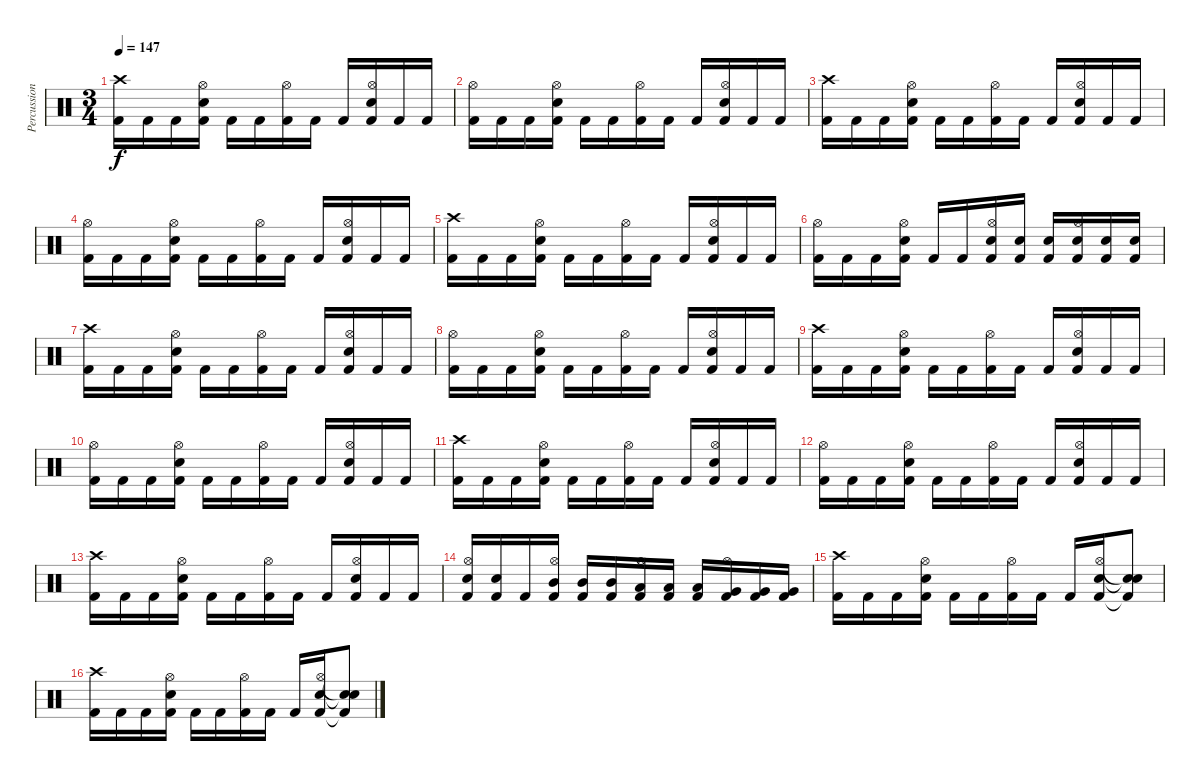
\track ("Percussion" "Percussion") {instrument percussion}
\staff {score}
\articulation defaults
\ts (3 4)
\tempo 147
\clef neutral
\ks c
("Crash high (hit)" "Kick (hit) 2").16{dy f} "Kick (hit) 2".16 "Kick (hit) 2".16 ("Hi-Hat (open)" "Electric Snare (hit)" "Kick (hit) 2").16 "Kick (hit) 2".16 "Kick (hit) 2".16 ("Hi-Hat (open)" "Kick (hit) 2").16 "Kick (hit) 2".16 "Kick (hit) 2".16 ("Hi-Hat (open)" "Electric Snare (hit)" "Kick (hit) 2").16 "Kick (hit) 2".16 "Kick (hit) 2".16 |
("Hi-Hat (open)" "Kick (hit) 2").16 "Kick (hit) 2".16 "Kick (hit) 2".16 ("Hi-Hat (open)" "Electric Snare (hit)" "Kick (hit) 2").16 "Kick (hit) 2".16 "Kick (hit) 2".16 ("Hi-Hat (open)" "Kick (hit) 2").16 "Kick (hit) 2".16 "Kick (hit) 2".16 ("Hi-Hat (open)" "Electric Snare (hit)" "Kick (hit) 2").16 "Kick (hit) 2".16 "Kick (hit) 2".16 |
("Crash high (hit)" "Kick (hit) 2").16 "Kick (hit) 2".16 "Kick (hit) 2".16 ("Hi-Hat (open)" "Electric Snare (hit)" "Kick (hit) 2").16 "Kick (hit) 2".16 "Kick (hit) 2".16 ("Hi-Hat (open)" "Kick (hit) 2").16 "Kick (hit) 2".16 "Kick (hit) 2".16 ("Hi-Hat (open)" "Electric Snare (hit)" "Kick (hit) 2").16 "Kick (hit) 2".16 "Kick (hit) 2".16 |
("Hi-Hat (open)" "Kick (hit) 2").16 "Kick (hit) 2".16 "Kick (hit) 2".16 ("Hi-Hat (open)" "Electric Snare (hit)" "Kick (hit) 2").16 "Kick (hit) 2".16 "Kick (hit) 2".16 ("Hi-Hat (open)" "Kick (hit) 2").16 "Kick (hit) 2".16 "Kick (hit) 2".16 ("Hi-Hat (open)" "Electric Snare (hit)" "Kick (hit) 2").16 "Kick (hit) 2".16 "Kick (hit) 2".16 |
("Crash high (hit)" "Kick (hit) 2").16 "Kick (hit) 2".16 "Kick (hit) 2".16 ("Hi-Hat (open)" "Electric Snare (hit)" "Kick (hit) 2").16 "Kick (hit) 2".16 "Kick (hit) 2".16 ("Hi-Hat (open)" "Kick (hit) 2").16 "Kick (hit) 2".16 "Kick (hit) 2".16 ("Hi-Hat (open)" "Electric Snare (hit)" "Kick (hit) 2").16 "Kick (hit) 2".16 "Kick (hit) 2".16 |
("Hi-Hat (open)" "Kick (hit) 2").16 "Kick (hit) 2".16 "Kick (hit) 2".16 ("Hi-Hat (open)" "Electric Snare (hit)" "Kick (hit) 2").16 "Kick (hit) 2".16 "Kick (hit) 2".16 ("Hi-Hat (open)" "Electric Snare (hit)" "Kick (hit) 2").16 ("Electric Snare (hit)" "Kick (hit) 2").16 ("Electric Snare (hit)" "Kick (hit) 2").16 ("Hi-Hat (open)" "Electric Snare (hit)" "Kick (hit) 2").16 ("Electric Snare (hit)" "Kick (hit) 2").16 ("Electric Snare (hit)" "Kick (hit) 2").16 |
("Crash high (hit)" "Kick (hit) 2").16 "Kick (hit) 2".16 "Kick (hit) 2".16 ("Hi-Hat (open)" "Electric Snare (hit)" "Kick (hit) 2").16 "Kick (hit) 2".16 "Kick (hit) 2".16 ("Hi-Hat (open)" "Kick (hit) 2").16 "Kick (hit) 2".16 "Kick (hit) 2".16 ("Hi-Hat (open)" "Electric Snare (hit)" "Kick (hit) 2").16 "Kick (hit) 2".16 "Kick (hit) 2".16 |
("Hi-Hat (open)" "Kick (hit) 2").16 "Kick (hit) 2".16 "Kick (hit) 2".16 ("Hi-Hat (open)" "Electric Snare (hit)" "Kick (hit) 2").16 "Kick (hit) 2".16 "Kick (hit) 2".16 ("Hi-Hat (open)" "Kick (hit) 2").16 "Kick (hit) 2".16 "Kick (hit) 2".16 ("Hi-Hat (open)" "Electric Snare (hit)" "Kick (hit) 2").16 "Kick (hit) 2".16 "Kick (hit) 2".16 |
("Crash high (hit)" "Kick (hit) 2").16 "Kick (hit) 2".16 "Kick (hit) 2".16 ("Hi-Hat (open)" "Electric Snare (hit)" "Kick (hit) 2").16 "Kick (hit) 2".16 "Kick (hit) 2".16 ("Hi-Hat (open)" "Kick (hit) 2").16 "Kick (hit) 2".16 "Kick (hit) 2".16 ("Hi-Hat (open)" "Electric Snare (hit)" "Kick (hit) 2").16 "Kick (hit) 2".16 "Kick (hit) 2".16 |
("Hi-Hat (open)" "Kick (hit) 2").16 "Kick (hit) 2".16 "Kick (hit) 2".16 ("Hi-Hat (open)" "Electric Snare (hit)" "Kick (hit) 2").16 "Kick (hit) 2".16 "Kick (hit) 2".16 ("Hi-Hat (open)" "Kick (hit) 2").16 "Kick (hit) 2".16 "Kick (hit) 2".16 ("Hi-Hat (open)" "Electric Snare (hit)" "Kick (hit) 2").16 "Kick (hit) 2".16 "Kick (hit) 2".16 |
("Crash high (hit)" "Kick (hit) 2").16 "Kick (hit) 2".16 "Kick (hit) 2".16 ("Hi-Hat (open)" "Electric Snare (hit)" "Kick (hit) 2").16 "Kick (hit) 2".16 "Kick (hit) 2".16 ("Hi-Hat (open)" "Kick (hit) 2").16 "Kick (hit) 2".16 "Kick (hit) 2".16 ("Hi-Hat (open)" "Electric Snare (hit)" "Kick (hit) 2").16 "Kick (hit) 2".16 "Kick (hit) 2".16 |
("Hi-Hat (open)" "Kick (hit) 2").16 "Kick (hit) 2".16 "Kick (hit) 2".16 ("Hi-Hat (open)" "Electric Snare (hit)" "Kick (hit) 2").16 "Kick (hit) 2".16 "Kick (hit) 2".16 ("Hi-Hat (open)" "Kick (hit) 2").16 "Kick (hit) 2".16 "Kick (hit) 2".16 ("Hi-Hat (open)" "Electric Snare (hit)" "Kick (hit) 2").16 "Kick (hit) 2".16 "Kick (hit) 2".16 |
("Crash high (hit)" "Kick (hit) 2").16 "Kick (hit) 2".16 "Kick (hit) 2".16 ("Hi-Hat (open)" "Electric Snare (hit)" "Kick (hit) 2").16 "Kick (hit) 2".16 "Kick (hit) 2".16 ("Hi-Hat (open)" "Kick (hit) 2").16 "Kick (hit) 2".16 "Kick (hit) 2".16 ("Hi-Hat (open)" "Electric Snare (hit)" "Kick (hit) 2").16 "Kick (hit) 2".16 "Kick (hit) 2".16 |
("Hi-Hat (open)" "Electric Snare (hit)" "Kick (hit) 2").16 ("Electric Snare (hit)" "Kick (hit) 2").16 "Kick (hit) 2".16 ("Hi-Hat (open)" "Mid Tom (hit)" "Kick (hit) 2").16 ("Mid Tom (hit)" "Kick (hit) 2").16 ("Mid Tom (hit)" "Kick (hit) 2").16 ("Hi-Hat (open)" "Low Tom (hit)" "Kick (hit) 2").16 ("Low Tom (hit)" "Kick (hit) 2").16 ("Low Tom (hit)" "Kick (hit) 2").16 ("Hi-Hat (open)" "Very Low Tom (hit)" "Kick (hit) 2").16 ("Very Low Tom (hit)" "Kick (hit) 2").16 ("Very Low Tom (hit)" "Kick (hit) 2").16 |
("Crash high (hit)" "Kick (hit) 2").16 "Kick (hit) 2".16 "Kick (hit) 2".16 ("Hi-Hat (open)" "Electric Snare (hit)" "Kick (hit) 2").16 "Kick (hit) 2".16 "Kick (hit) 2".16 ("Hi-Hat (open)" "Kick (hit) 2").16 "Kick (hit) 2".16 "Kick (hit) 2".16 ("Hi-Hat (open)" "Electric Snare (hit)" "Kick (hit) 2").16 ("Snare (hit)"{t} "Snare (hit)"{t} "Kick (hit) 2"{t}).8 |
("Crash high (hit)" "Kick (hit) 2").16 "Kick (hit) 2".16 "Kick (hit) 2".16 ("Hi-Hat (open)" "Electric Snare (hit)" "Kick (hit) 2").16 "Kick (hit) 2".16 "Kick (hit) 2".16 ("Hi-Hat (open)" "Kick (hit) 2").16 "Kick (hit) 2".16 "Kick (hit) 2".16 ("Hi-Hat (open)" "Electric Snare (hit)" "Kick (hit) 2").16 ("Snare (hit)"{t} "Snare (hit)"{t} "Kick (hit) 2"{t}).8
